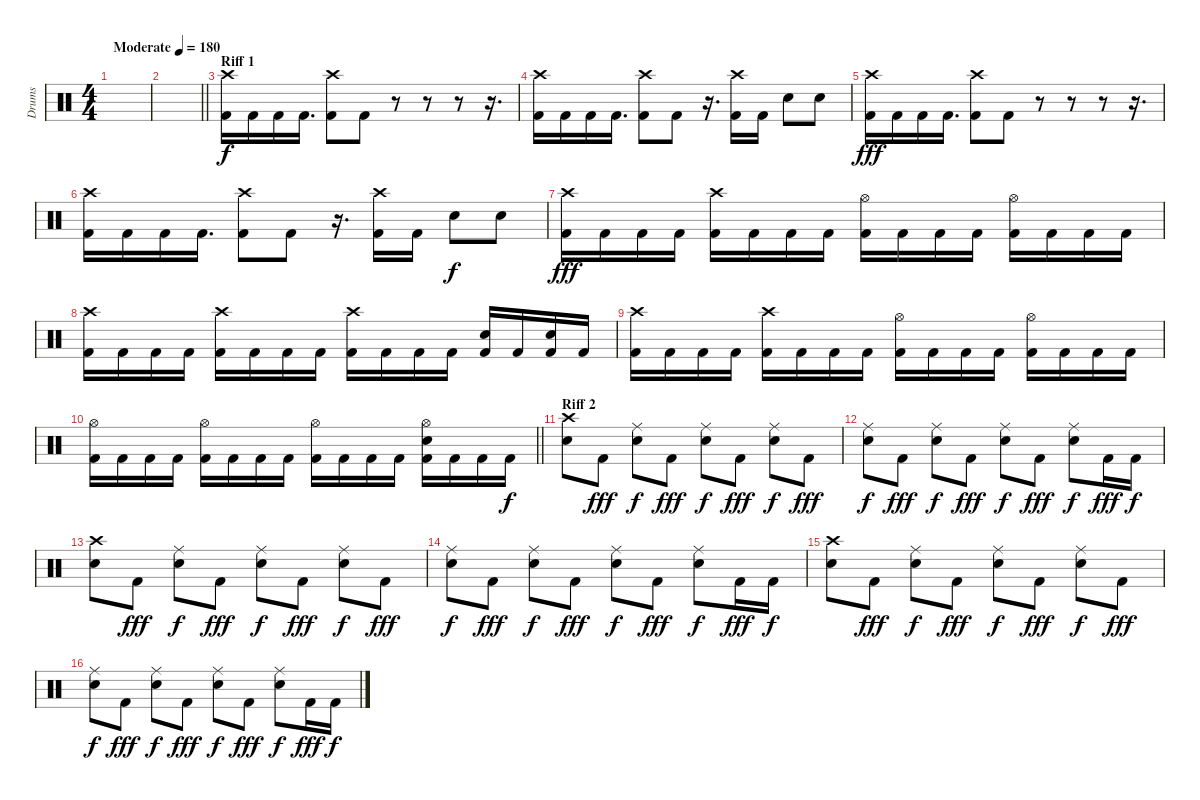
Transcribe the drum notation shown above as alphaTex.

\track ("Drums" "Drums") {instrument percussion}
\staff {score}
\articulation defaults
\ts (4 4)
\tempo (180 "Moderate")
\clef neutral
\ks c
|
\barLineRight lightlight
|
\section ("" "Riff 1")
("Crash high (hit)" "Kick (hit) 2").16 "Kick (hit) 2".16 "Kick (hit) 2".16 "Kick (hit) 2".16{d} ("Crash high (hit)" "Kick (hit) 2").8 "Kick (hit) 2".8 r.8 r.8 r.8 r.16{d} |
("Crash high (hit)" "Kick (hit) 2").16 "Kick (hit) 2".16 "Kick (hit) 2".16 "Kick (hit) 2".16{d} ("Crash high (hit)" "Kick (hit) 2").8 "Kick (hit) 2".8 r.16{d} ("Crash high (hit)" "Kick (hit) 2").16 "Kick (hit) 2".16 "Electric Snare (hit)".8{dy f} "Electric Snare (hit)".8 |
("Crash high (hit)" "Kick (hit) 2").16{dy fff} "Kick (hit) 2".16 "Kick (hit) 2".16 "Kick (hit) 2".16{d} ("Crash high (hit)" "Kick (hit) 2").8 "Kick (hit) 2".8 r.8 r.8 r.8 r.16{d} |
("Crash high (hit)" "Kick (hit) 2").16 "Kick (hit) 2".16 "Kick (hit) 2".16 "Kick (hit) 2".16{d} ("Crash high (hit)" "Kick (hit) 2").8 "Kick (hit) 2".8 r.16{d} ("Crash high (hit)" "Kick (hit) 2").16 "Kick (hit) 2".16 "Electric Snare (hit)".8{dy f} "Electric Snare (hit)".8 |
("Crash high (hit)" "Kick (hit) 2").16{dy fff} "Kick (hit) 2".16 "Kick (hit) 2".16 "Kick (hit) 2".16 ("Crash high (hit)" "Kick (hit) 2").16 "Kick (hit) 2".16 "Kick (hit) 2".16 "Kick (hit) 2".16 ("Hi-Hat (open)" "Kick (hit) 2").16 "Kick (hit) 2".16 "Kick (hit) 2".16 "Kick (hit) 2".16 ("Hi-Hat (open)" "Kick (hit) 2").16 "Kick (hit) 2".16 "Kick (hit) 2".16 "Kick (hit) 2".16 |
("Crash high (hit)" "Kick (hit) 2").16 "Kick (hit) 2".16 "Kick (hit) 2".16 "Kick (hit) 2".16 ("Crash high (hit)" "Kick (hit) 2").16 "Kick (hit) 2".16 "Kick (hit) 2".16 "Kick (hit) 2".16 ("Crash high (hit)" "Kick (hit) 2").16 "Kick (hit) 2".16 "Kick (hit) 2".16 "Kick (hit) 2".16 ("Electric Snare (hit)" "Kick (hit) 2").16 "Kick (hit) 2".16 ("Electric Snare (hit)" "Kick (hit) 2").16 "Kick (hit) 2".16 |
("Crash high (hit)" "Kick (hit) 2").16 "Kick (hit) 2".16 "Kick (hit) 2".16 "Kick (hit) 2".16 ("Crash high (hit)" "Kick (hit) 2").16 "Kick (hit) 2".16 "Kick (hit) 2".16 "Kick (hit) 2".16 ("Hi-Hat (open)" "Kick (hit) 2").16 "Kick (hit) 2".16 "Kick (hit) 2".16 "Kick (hit) 2".16 ("Hi-Hat (open)" "Kick (hit) 2").16 "Kick (hit) 2".16 "Kick (hit) 2".16 "Kick (hit) 2".16 |
\barLineRight lightlight
("Hi-Hat (open)" "Kick (hit) 2").16 "Kick (hit) 2".16 "Kick (hit) 2".16 "Kick (hit) 2".16 ("Hi-Hat (open)" "Kick (hit) 2").16 "Kick (hit) 2".16 "Kick (hit) 2".16 "Kick (hit) 2".16 ("Hi-Hat (open)" "Kick (hit) 2").16 "Kick (hit) 2".16 "Kick (hit) 2".16 "Kick (hit) 2".16 ("Hi-Hat (open)" "Electric Snare (hit)" "Kick (hit) 2").16 "Kick (hit) 2".16 "Kick (hit) 2".16 "Kick (hit) 2".16{dy f} |
\section ("" "Riff 2")
("Crash high (hit)" "Electric Snare (hit)").8 "Kick (hit) 2".8{dy fff} ("Ride (middle)" "Electric Snare (hit)").8{dy f} "Kick (hit) 2".8{dy fff} ("Ride (middle)" "Electric Snare (hit)").8{dy f} "Kick (hit) 2".8{dy fff} ("Ride (middle)" "Electric Snare (hit)").8{dy f} "Kick (hit) 2".8{dy fff} |
("Ride (middle)" "Electric Snare (hit)").8{dy f} "Kick (hit) 2".8{dy fff} ("Ride (middle)" "Electric Snare (hit)").8{dy f} "Kick (hit) 2".8{dy fff} ("Ride (middle)" "Electric Snare (hit)").8{dy f} "Kick (hit) 2".8{dy fff} ("Ride (middle)" "Electric Snare (hit)").8{dy f} "Kick (hit) 2".16{dy fff} "Kick (hit) 2".16{dy f} |
("Crash high (hit)" "Electric Snare (hit)").8 "Kick (hit) 2".8{dy fff} ("Ride (middle)" "Electric Snare (hit)").8{dy f} "Kick (hit) 2".8{dy fff} ("Ride (middle)" "Electric Snare (hit)").8{dy f} "Kick (hit) 2".8{dy fff} ("Ride (middle)" "Electric Snare (hit)").8{dy f} "Kick (hit) 2".8{dy fff} |
("Ride (middle)" "Electric Snare (hit)").8{dy f} "Kick (hit) 2".8{dy fff} ("Ride (middle)" "Electric Snare (hit)").8{dy f} "Kick (hit) 2".8{dy fff} ("Ride (middle)" "Electric Snare (hit)").8{dy f} "Kick (hit) 2".8{dy fff} ("Ride (middle)" "Electric Snare (hit)").8{dy f} "Kick (hit) 2".16{dy fff} "Kick (hit) 2".16{dy f} |
("Crash high (hit)" "Electric Snare (hit)").8 "Kick (hit) 2".8{dy fff} ("Ride (middle)" "Electric Snare (hit)").8{dy f} "Kick (hit) 2".8{dy fff} ("Ride (middle)" "Electric Snare (hit)").8{dy f} "Kick (hit) 2".8{dy fff} ("Ride (middle)" "Electric Snare (hit)").8{dy f} "Kick (hit) 2".8{dy fff} |
("Ride (middle)" "Electric Snare (hit)").8{dy f} "Kick (hit) 2".8{dy fff} ("Ride (middle)" "Electric Snare (hit)").8{dy f} "Kick (hit) 2".8{dy fff} ("Ride (middle)" "Electric Snare (hit)").8{dy f} "Kick (hit) 2".8{dy fff} ("Ride (middle)" "Electric Snare (hit)").8{dy f} "Kick (hit) 2".16{dy fff} "Kick (hit) 2".16{dy f}
